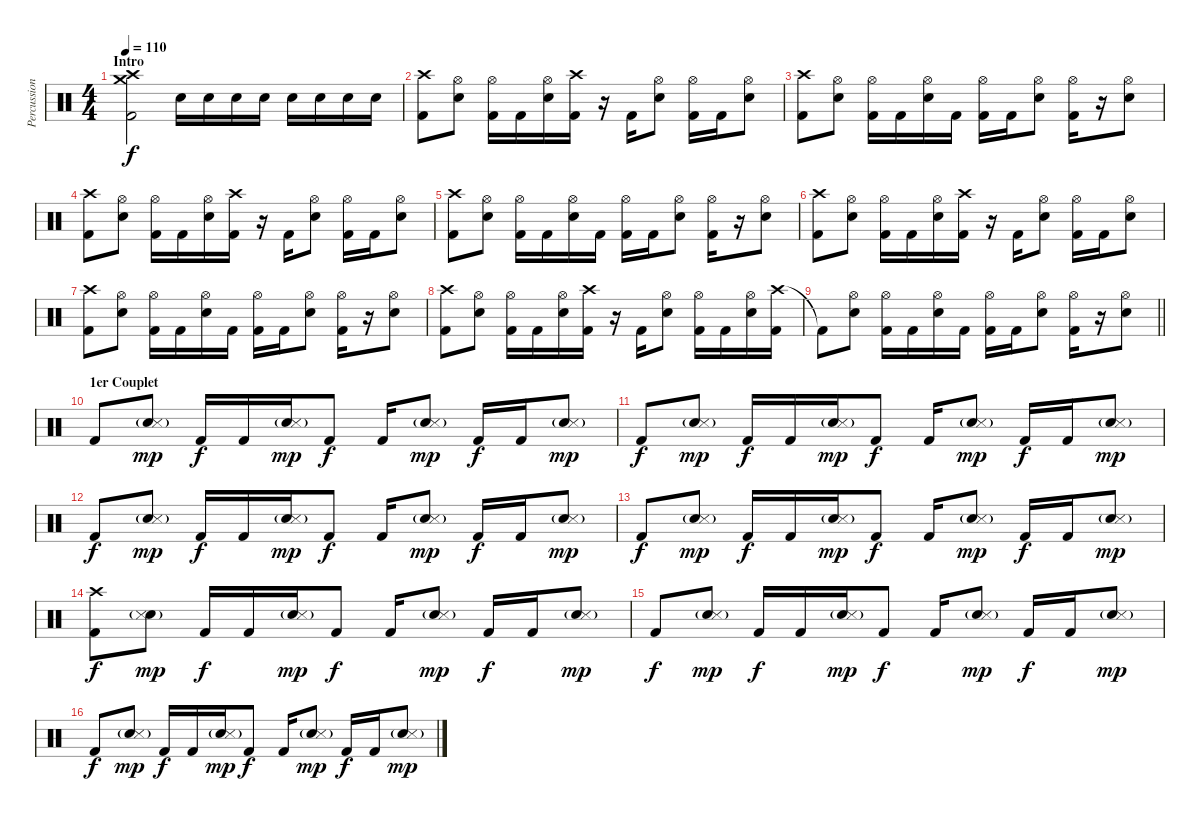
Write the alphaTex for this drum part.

\track ("Percussions" "Percussion") {instrument percussion}
\staff {score}
\articulation defaults
\ts (4 4)
\section ("" "Intro")
\tempo 110
\clef neutral
\ks c
("Crash high (hit)" "Crash medium (hit)" "Kick (hit) 2").2{dy f} "Electric Snare (hit)".16 "Electric Snare (hit)".16 "Electric Snare (hit)".16 "Electric Snare (hit)".16 "Electric Snare (hit)".16 "Electric Snare (hit)".16 "Electric Snare (hit)".16 "Electric Snare (hit)".16 |
("Crash high (hit)" "Kick (hit) 2").8 ("Hi-Hat (open)" "Electric Snare (hit)").8 ("Hi-Hat (open)" "Kick (hit) 2").16 "Kick (hit) 2".16 ("Hi-Hat (open)" "Electric Snare (hit)").16 ("Crash high (hit)" "Kick (hit) 2").16 r.16 "Kick (hit) 2".16 ("Hi-Hat (open)" "Electric Snare (hit)").8 ("Hi-Hat (open)" "Kick (hit) 2").16 "Kick (hit) 2".16 ("Hi-Hat (open)" "Electric Snare (hit)").8 |
("Crash high (hit)" "Kick (hit) 2").8 ("Hi-Hat (open)" "Electric Snare (hit)").8 ("Hi-Hat (open)" "Kick (hit) 2").16 "Kick (hit) 2".16 ("Hi-Hat (open)" "Electric Snare (hit)").16 "Kick (hit) 2".16 ("Hi-Hat (open)" "Kick (hit) 2").16 "Kick (hit) 2".16 ("Hi-Hat (open)" "Electric Snare (hit)").8 ("Hi-Hat (open)" "Kick (hit) 2").16 r.16 ("Hi-Hat (open)" "Electric Snare (hit)").8 |
("Crash high (hit)" "Kick (hit) 2").8 ("Hi-Hat (open)" "Electric Snare (hit)").8 ("Hi-Hat (open)" "Kick (hit) 2").16 "Kick (hit) 2".16 ("Hi-Hat (open)" "Electric Snare (hit)").16 ("Crash high (hit)" "Kick (hit) 2").16 r.16 "Kick (hit) 2".16 ("Hi-Hat (open)" "Electric Snare (hit)").8 ("Hi-Hat (open)" "Kick (hit) 2").16 "Kick (hit) 2".16 ("Hi-Hat (open)" "Electric Snare (hit)").8 |
("Crash high (hit)" "Kick (hit) 2").8 ("Hi-Hat (open)" "Electric Snare (hit)").8 ("Hi-Hat (open)" "Kick (hit) 2").16 "Kick (hit) 2".16 ("Hi-Hat (open)" "Electric Snare (hit)").16 "Kick (hit) 2".16 ("Hi-Hat (open)" "Kick (hit) 2").16 "Kick (hit) 2".16 ("Hi-Hat (open)" "Electric Snare (hit)").8 ("Hi-Hat (open)" "Kick (hit) 2").16 r.16 ("Hi-Hat (open)" "Electric Snare (hit)").8 |
("Crash high (hit)" "Kick (hit) 2").8 ("Hi-Hat (open)" "Electric Snare (hit)").8 ("Hi-Hat (open)" "Kick (hit) 2").16 "Kick (hit) 2".16 ("Hi-Hat (open)" "Electric Snare (hit)").16 ("Crash high (hit)" "Kick (hit) 2").16 r.16 "Kick (hit) 2".16 ("Hi-Hat (open)" "Electric Snare (hit)").8 ("Hi-Hat (open)" "Kick (hit) 2").16 "Kick (hit) 2".16 ("Hi-Hat (open)" "Electric Snare (hit)").8 |
("Crash high (hit)" "Kick (hit) 2").8 ("Hi-Hat (open)" "Electric Snare (hit)").8 ("Hi-Hat (open)" "Kick (hit) 2").16 "Kick (hit) 2".16 ("Hi-Hat (open)" "Electric Snare (hit)").16 "Kick (hit) 2".16 ("Hi-Hat (open)" "Kick (hit) 2").16 "Kick (hit) 2".16 ("Hi-Hat (open)" "Electric Snare (hit)").8 ("Hi-Hat (open)" "Kick (hit) 2").16 r.16 ("Hi-Hat (open)" "Electric Snare (hit)").8 |
("Crash high (hit)" "Kick (hit) 2").8 ("Hi-Hat (open)" "Electric Snare (hit)").8 ("Hi-Hat (open)" "Kick (hit) 2").16 "Kick (hit) 2".16 ("Hi-Hat (open)" "Electric Snare (hit)").16 ("Crash high (hit)" "Kick (hit) 2").16 r.16 "Kick (hit) 2".16 ("Hi-Hat (open)" "Electric Snare (hit)").8 ("Hi-Hat (open)" "Kick (hit) 2").16 "Kick (hit) 2".16 ("Hi-Hat (open)" "Electric Snare (hit)").16 ("Crash high (hit)" "Kick (hit) 2").16 |
\barLineRight lightlight "Kick (hit) 2"{t}.8
("Hi-Hat (open)" "Electric Snare (hit)").8 ("Hi-Hat (open)" "Kick (hit) 2").16 "Kick (hit) 2".16 ("Hi-Hat (open)" "Electric Snare (hit)").16 "Kick (hit) 2".16 ("Hi-Hat (open)" "Kick (hit) 2").16 "Kick (hit) 2".16 ("Hi-Hat (open)" "Electric Snare (hit)").8 ("Hi-Hat (open)" "Kick (hit) 2").16 r.16 ("Hi-Hat (open)" "Electric Snare (hit)").8 |
\section ("" "1er Couplet")
"Kick (hit) 2".8 ("Electric Snare (hit)"{g} "Snare (side stick) 3").8{dy mp} "Kick (hit) 2".16{dy f} "Kick (hit) 2".16 ("Electric Snare (hit)"{g} "Snare (side stick) 3").16{dy mp} "Kick (hit) 2".8{dy f} "Kick (hit) 2".16 ("Electric Snare (hit)"{g} "Snare (side stick) 3").8{dy mp} "Kick (hit) 2".16{dy f} "Kick (hit) 2".16 ("Electric Snare (hit)"{g} "Snare (side stick) 3").8{dy mp} |
"Kick (hit) 2".8{dy f} ("Electric Snare (hit)"{g} "Snare (side stick) 3").8{dy mp} "Kick (hit) 2".16{dy f} "Kick (hit) 2".16 ("Electric Snare (hit)"{g} "Snare (side stick) 3").16{dy mp} "Kick (hit) 2".8{dy f} "Kick (hit) 2".16 ("Electric Snare (hit)"{g} "Snare (side stick) 3").8{dy mp} "Kick (hit) 2".16{dy f} "Kick (hit) 2".16 ("Electric Snare (hit)"{g} "Snare (side stick) 3").8{dy mp} |
"Kick (hit) 2".8{dy f} ("Electric Snare (hit)"{g} "Snare (side stick) 3").8{dy mp} "Kick (hit) 2".16{dy f} "Kick (hit) 2".16 ("Electric Snare (hit)"{g} "Snare (side stick) 3").16{dy mp} "Kick (hit) 2".8{dy f} "Kick (hit) 2".16 ("Electric Snare (hit)"{g} "Snare (side stick) 3").8{dy mp} "Kick (hit) 2".16{dy f} "Kick (hit) 2".16 ("Electric Snare (hit)"{g} "Snare (side stick) 3").8{dy mp} |
"Kick (hit) 2".8{dy f} ("Electric Snare (hit)"{g} "Snare (side stick) 3").8{dy mp} "Kick (hit) 2".16{dy f} "Kick (hit) 2".16 ("Electric Snare (hit)"{g} "Snare (side stick) 3").16{dy mp} "Kick (hit) 2".8{dy f} "Kick (hit) 2".16 ("Electric Snare (hit)"{g} "Snare (side stick) 3").8{dy mp} "Kick (hit) 2".16{dy f} "Kick (hit) 2".16 ("Electric Snare (hit)"{g} "Snare (side stick) 3").8{dy mp} |
("Crash high (hit)" "Kick (hit) 2").8{dy f} ("Electric Snare (hit)"{g} "Snare (side stick) 3").8{dy mp} "Kick (hit) 2".16{dy f} "Kick (hit) 2".16 ("Electric Snare (hit)"{g} "Snare (side stick) 3").16{dy mp} "Kick (hit) 2".8{dy f} "Kick (hit) 2".16 ("Electric Snare (hit)"{g} "Snare (side stick) 3").8{dy mp} "Kick (hit) 2".16{dy f} "Kick (hit) 2".16 ("Electric Snare (hit)"{g} "Snare (side stick) 3").8{dy mp} |
"Kick (hit) 2".8{dy f} ("Electric Snare (hit)"{g} "Snare (side stick) 3").8{dy mp} "Kick (hit) 2".16{dy f} "Kick (hit) 2".16 ("Electric Snare (hit)"{g} "Snare (side stick) 3").16{dy mp} "Kick (hit) 2".8{dy f} "Kick (hit) 2".16 ("Electric Snare (hit)"{g} "Snare (side stick) 3").8{dy mp} "Kick (hit) 2".16{dy f} "Kick (hit) 2".16 ("Electric Snare (hit)"{g} "Snare (side stick) 3").8{dy mp} |
"Kick (hit) 2".8{dy f} ("Electric Snare (hit)"{g} "Snare (side stick) 3").8{dy mp} "Kick (hit) 2".16{dy f} "Kick (hit) 2".16 ("Electric Snare (hit)"{g} "Snare (side stick) 3").16{dy mp} "Kick (hit) 2".8{dy f} "Kick (hit) 2".16 ("Electric Snare (hit)"{g} "Snare (side stick) 3").8{dy mp} "Kick (hit) 2".16{dy f} "Kick (hit) 2".16 ("Electric Snare (hit)"{g} "Snare (side stick) 3").8{dy mp}
